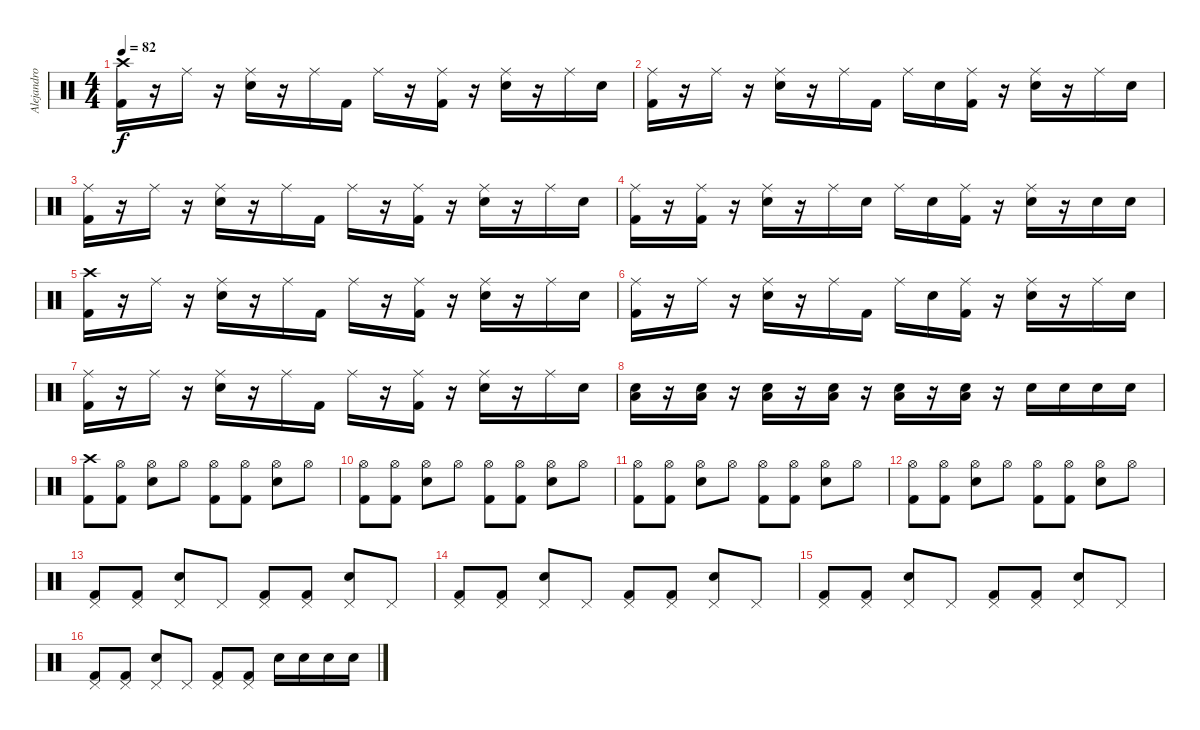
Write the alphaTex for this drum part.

\track ("Alejandro" "Alejandro") {instrument percussion}
\staff {score}
\articulation defaults
\ts (4 4)
\tempo 82
\clef neutral
\ks c
("Crash high (hit)" "Kick (hit) 2").16{dy f} r.16 "Ride (middle)".16 r.16 ("Ride (middle)" "Electric Snare (hit)").16 r.16 "Ride (middle)".16 "Kick (hit) 2".16 "Ride (middle)".16 r.16 ("Ride (middle)" "Kick (hit) 2").16 r.16 ("Ride (middle)" "Electric Snare (hit)").16 r.16 "Ride (middle)".16 "Snare (hit)".16 |
("Ride (middle)" "Kick (hit) 2").16 r.16 "Ride (middle)".16 r.16 ("Ride (middle)" "Electric Snare (hit)").16 r.16 "Ride (middle)".16 "Kick (hit) 2".16 "Ride (middle)".16 "Electric Snare (hit)".16 ("Ride (middle)" "Kick (hit) 2").16 r.16 ("Ride (middle)" "Electric Snare (hit)").16 r.16 "Ride (middle)".16 "Snare (hit)".16 |
("Ride (middle)" "Kick (hit) 2").16 r.16 "Ride (middle)".16 r.16 ("Ride (middle)" "Electric Snare (hit)").16 r.16 "Ride (middle)".16 "Kick (hit) 2".16 "Ride (middle)".16 r.16 ("Ride (middle)" "Kick (hit) 2").16 r.16 ("Ride (middle)" "Electric Snare (hit)").16 r.16 "Ride (middle)".16 "Snare (hit)".16 |
("Ride (middle)" "Kick (hit) 2").16 r.16 ("Ride (middle)" "Kick (hit) 2").16 r.16 ("Ride (middle)" "Electric Snare (hit)").16 r.16 "Ride (middle)".16 "Electric Snare (hit)".16 "Ride (middle)".16 "Electric Snare (hit)".16 ("Ride (middle)" "Kick (hit) 2").16 r.16 ("Ride (middle)" "Electric Snare (hit)").16 r.16 "Electric Snare (hit)".16 "Electric Snare (hit)".16 |
("Crash high (hit)" "Kick (hit) 2").16 r.16 "Ride (middle)".16 r.16 ("Ride (middle)" "Electric Snare (hit)").16 r.16 "Ride (middle)".16 "Kick (hit) 2".16 "Ride (middle)".16 r.16 ("Ride (middle)" "Kick (hit) 2").16 r.16 ("Ride (middle)" "Electric Snare (hit)").16 r.16 "Ride (middle)".16 "Snare (hit)".16 |
("Ride (middle)" "Kick (hit) 2").16 r.16 "Ride (middle)".16 r.16 ("Ride (middle)" "Electric Snare (hit)").16 r.16 "Ride (middle)".16 "Kick (hit) 2".16 "Ride (middle)".16 "Electric Snare (hit)".16 ("Ride (middle)" "Kick (hit) 2").16 r.16 ("Ride (middle)" "Electric Snare (hit)").16 r.16 "Ride (middle)".16 "Snare (hit)".16 |
("Ride (middle)" "Kick (hit) 2").16 r.16 "Ride (middle)".16 r.16 ("Ride (middle)" "Electric Snare (hit)").16 r.16 "Ride (middle)".16 "Kick (hit) 2".16 "Ride (middle)".16 r.16 ("Ride (middle)" "Kick (hit) 2").16 r.16 ("Ride (middle)" "Electric Snare (hit)").16 r.16 "Ride (middle)".16 "Snare (hit)".16 |
("Low Floor Tom (hit)" "Electric Snare (hit)").16 r.16 ("Low Floor Tom (hit)" "Electric Snare (hit)").16 r.16 ("Low Floor Tom (hit)" "Electric Snare (hit)").16 r.16 ("Low Floor Tom (hit)" "Electric Snare (hit)").16 r.16 ("Low Floor Tom (hit)" "Electric Snare (hit)").16 r.16 ("Low Floor Tom (hit)" "Electric Snare (hit)").16 r.16 "Electric Snare (hit)".16 "Electric Snare (hit)".16 "Electric Snare (hit)".16 "Electric Snare (hit)".16 |
("Crash high (hit)" "Kick (hit) 2").8 ("Hi-Hat (open)" "Kick (hit) 2").8 ("Hi-Hat (open)" "Electric Snare (hit)").8 "Hi-Hat (open)".8 ("Hi-Hat (open)" "Kick (hit) 2").8 ("Hi-Hat (open)" "Kick (hit) 2").8 ("Hi-Hat (open)" "Electric Snare (hit)").8 "Hi-Hat (open)".8 |
("Hi-Hat (open)" "Kick (hit) 2").8 ("Hi-Hat (open)" "Kick (hit) 2").8 ("Hi-Hat (open)" "Electric Snare (hit)").8 "Hi-Hat (open)".8 ("Hi-Hat (open)" "Kick (hit) 2").8 ("Hi-Hat (open)" "Kick (hit) 2").8 ("Hi-Hat (open)" "Electric Snare (hit)").8 "Hi-Hat (open)".8 |
("Hi-Hat (open)" "Kick (hit) 2").8 ("Hi-Hat (open)" "Kick (hit) 2").8 ("Hi-Hat (open)" "Electric Snare (hit)").8 "Hi-Hat (open)".8 ("Hi-Hat (open)" "Kick (hit) 2").8 ("Hi-Hat (open)" "Kick (hit) 2").8 ("Hi-Hat (open)" "Electric Snare (hit)").8 "Hi-Hat (open)".8 |
("Hi-Hat (open)" "Kick (hit) 2").8 ("Hi-Hat (open)" "Kick (hit) 2").8 ("Hi-Hat (open)" "Electric Snare (hit)").8 "Hi-Hat (open)".8 ("Hi-Hat (open)" "Kick (hit) 2").8 ("Hi-Hat (open)" "Kick (hit) 2").8 ("Hi-Hat (open)" "Electric Snare (hit)").8 "Hi-Hat (open)".8 |
("Pedal Hi-Hat (hit)" "Kick (hit) 2").8 ("Pedal Hi-Hat (hit)" "Kick (hit) 2").8 ("Pedal Hi-Hat (hit)" "Electric Snare (hit)").8 "Pedal Hi-Hat (hit)".8 ("Pedal Hi-Hat (hit)" "Kick (hit) 2").8 ("Pedal Hi-Hat (hit)" "Kick (hit) 2").8 ("Pedal Hi-Hat (hit)" "Electric Snare (hit)").8 "Pedal Hi-Hat (hit)".8 |
("Pedal Hi-Hat (hit)" "Kick (hit) 2").8 ("Pedal Hi-Hat (hit)" "Kick (hit) 2").8 ("Pedal Hi-Hat (hit)" "Electric Snare (hit)").8 "Pedal Hi-Hat (hit)".8 ("Pedal Hi-Hat (hit)" "Kick (hit) 2").8 ("Pedal Hi-Hat (hit)" "Kick (hit) 2").8 ("Pedal Hi-Hat (hit)" "Electric Snare (hit)").8 "Pedal Hi-Hat (hit)".8 |
("Pedal Hi-Hat (hit)" "Kick (hit) 2").8 ("Pedal Hi-Hat (hit)" "Kick (hit) 2").8 ("Pedal Hi-Hat (hit)" "Electric Snare (hit)").8 "Pedal Hi-Hat (hit)".8 ("Pedal Hi-Hat (hit)" "Kick (hit) 2").8 ("Pedal Hi-Hat (hit)" "Kick (hit) 2").8 ("Pedal Hi-Hat (hit)" "Electric Snare (hit)").8 "Pedal Hi-Hat (hit)".8 |
("Pedal Hi-Hat (hit)" "Kick (hit) 2").8 ("Pedal Hi-Hat (hit)" "Kick (hit) 2").8 ("Pedal Hi-Hat (hit)" "Electric Snare (hit)").8 "Pedal Hi-Hat (hit)".8 ("Pedal Hi-Hat (hit)" "Kick (hit) 2").8 ("Pedal Hi-Hat (hit)" "Kick (hit) 2").8 "Electric Snare (hit)".16 "Electric Snare (hit)".16 "Electric Snare (hit)".16 "Electric Snare (hit)".16
